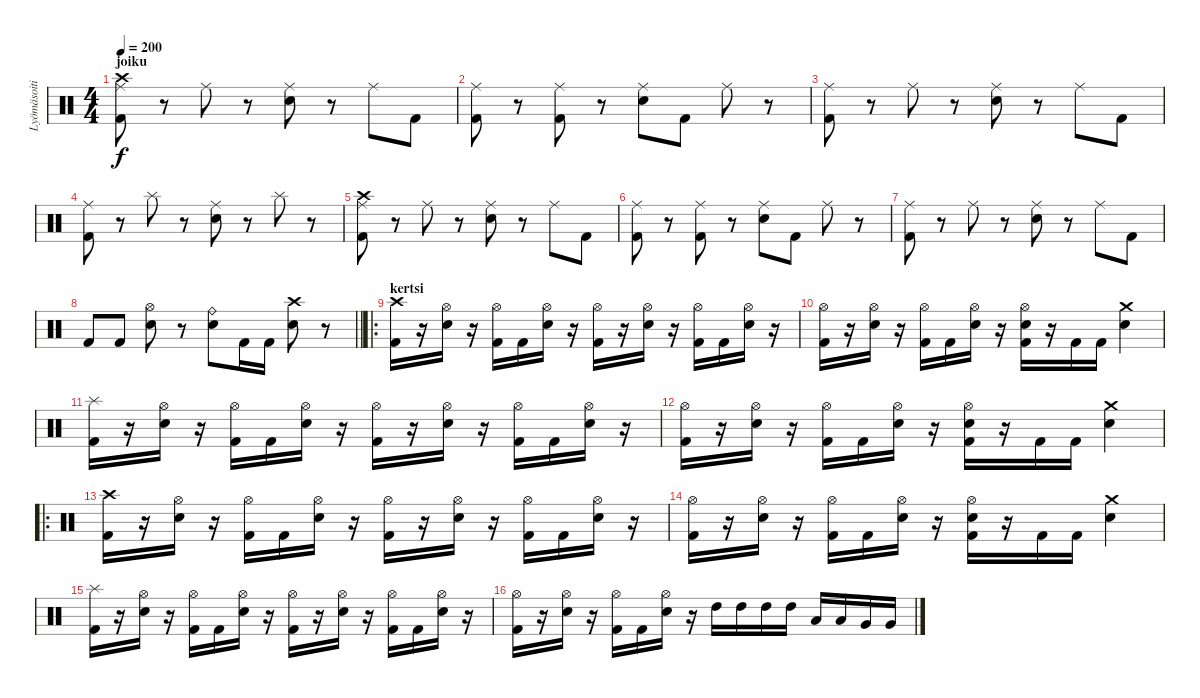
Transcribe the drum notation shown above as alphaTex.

\track ("Lyömäsoitin" "Lyömäsoiti") {instrument percussion}
\staff {score}
\articulation defaults
\ts (4 4)
\section ("" "joiku")
\tempo 200
\clef neutral
\ks c
("Crash high (hit)" "Ride (middle)" "Kick (hit) 2").8{dy f} r.8 "Ride (middle)".8 r.8 ("Electric Snare (hit)" "Ride (middle)").8 r.8 "Ride (middle)".8 "Kick (hit) 2".8 |
("Ride (middle)" "Kick (hit) 2").8 r.8 ("Ride (middle)" "Kick (hit) 2").8 r.8 ("Electric Snare (hit)" "Ride (middle)").8 "Kick (hit) 2".8 "Ride (middle)".8 r.8 |
("Ride (middle)" "Kick (hit) 2").8 r.8 "Ride (middle)".8 r.8 ("Electric Snare (hit)" "Ride (middle)").8 r.8 "Ride (middle)".8 "Kick (hit) 2".8 |
("Ride (middle)" "Kick (hit) 2").8 r.8 "Splash (hit)".8 r.8 ("Electric Snare (hit)" "Ride (middle)").8 r.8 "Splash (hit)".8 r.8 |
("Crash high (hit)" "Ride (middle)" "Kick (hit) 2").8 r.8 "Ride (middle)".8 r.8 ("Electric Snare (hit)" "Ride (middle)").8 r.8 "Ride (middle)".8 "Kick (hit) 2".8 |
("Ride (middle)" "Kick (hit) 2").8 r.8 ("Ride (middle)" "Kick (hit) 2").8 r.8 ("Electric Snare (hit)" "Ride (middle)").8 "Kick (hit) 2".8 "Ride (middle)".8 r.8 |
("Ride (middle)" "Kick (hit) 2").8 r.8 "Ride (middle)".8 r.8 ("Electric Snare (hit)" "Ride (middle)").8 r.8 "Ride (middle)".8 "Kick (hit) 2".8 |
\barLineRight lightlight "Kick (hit) 2".8 "Kick (hit) 2".8
("Hi-Hat (open)" "Electric Snare (hit)").8 r.8 ("Ride (bell)" "Electric Snare (hit)").8 "Kick (hit) 2".16 "Kick (hit) 2".16 ("Crash high (hit)" "Electric Snare (hit)").8 r.8 |
\ro
\section ("" "kertsi")
("Crash high (hit)" "Kick (hit) 2").16 r.16 ("Hi-Hat (open)" "Electric Snare (hit)").16 r.16 ("Hi-Hat (open)" "Kick (hit) 2").16 "Kick (hit) 2".16 ("Hi-Hat (open)" "Electric Snare (hit)").16 r.16 ("Hi-Hat (open)" "Kick (hit) 2").16 r.16 ("Hi-Hat (open)" "Electric Snare (hit)").16 r.16 ("Hi-Hat (open)" "Kick (hit) 2").16 "Kick (hit) 2".16 ("Hi-Hat (open)" "Electric Snare (hit)").16 r.16 |
("Hi-Hat (open)" "Kick (hit) 2").16 r.16 ("Hi-Hat (open)" "Electric Snare (hit)").16 r.16 ("Hi-Hat (open)" "Kick (hit) 2").16 "Kick (hit) 2".16 ("Hi-Hat (open)" "Electric Snare (hit)").16 r.16 ("Hi-Hat (open)" "Electric Snare (hit)" "Kick (hit) 2").16 r.16 "Kick (hit) 2".16 "Kick (hit) 2".16 ("Crash medium (hit)" "Electric Snare (hit)").4 |
("Splash (hit)" "Kick (hit) 2").16 r.16 ("Hi-Hat (open)" "Electric Snare (hit)").16 r.16 ("Hi-Hat (open)" "Kick (hit) 2").16 "Kick (hit) 2".16 ("Hi-Hat (open)" "Electric Snare (hit)").16 r.16 ("Hi-Hat (open)" "Kick (hit) 2").16 r.16 ("Hi-Hat (open)" "Electric Snare (hit)").16 r.16 ("Hi-Hat (open)" "Kick (hit) 2").16 "Kick (hit) 2".16 ("Hi-Hat (open)" "Electric Snare (hit)").16 r.16 |
("Hi-Hat (open)" "Kick (hit) 2").16 r.16 ("Hi-Hat (open)" "Electric Snare (hit)").16 r.16 ("Hi-Hat (open)" "Kick (hit) 2").16 "Kick (hit) 2".16 ("Hi-Hat (open)" "Electric Snare (hit)").16 r.16 ("Hi-Hat (open)" "Electric Snare (hit)" "Kick (hit) 2").16 r.16 "Kick (hit) 2".16 "Kick (hit) 2".16 ("Crash medium (hit)" "Electric Snare (hit)").4 |
\ro
("Crash high (hit)" "Kick (hit) 2").16 r.16 ("Hi-Hat (open)" "Electric Snare (hit)").16 r.16 ("Hi-Hat (open)" "Kick (hit) 2").16 "Kick (hit) 2".16 ("Hi-Hat (open)" "Electric Snare (hit)").16 r.16 ("Hi-Hat (open)" "Kick (hit) 2").16 r.16 ("Hi-Hat (open)" "Electric Snare (hit)").16 r.16 ("Hi-Hat (open)" "Kick (hit) 2").16 "Kick (hit) 2".16 ("Hi-Hat (open)" "Electric Snare (hit)").16 r.16 |
("Hi-Hat (open)" "Kick (hit) 2").16 r.16 ("Hi-Hat (open)" "Electric Snare (hit)").16 r.16 ("Hi-Hat (open)" "Kick (hit) 2").16 "Kick (hit) 2".16 ("Hi-Hat (open)" "Electric Snare (hit)").16 r.16 ("Hi-Hat (open)" "Electric Snare (hit)" "Kick (hit) 2").16 r.16 "Kick (hit) 2".16 "Kick (hit) 2".16 ("Crash medium (hit)" "Electric Snare (hit)").4 |
("Splash (hit)" "Kick (hit) 2").16 r.16 ("Hi-Hat (open)" "Electric Snare (hit)").16 r.16 ("Hi-Hat (open)" "Kick (hit) 2").16 "Kick (hit) 2".16 ("Hi-Hat (open)" "Electric Snare (hit)").16 r.16 ("Hi-Hat (open)" "Kick (hit) 2").16 r.16 ("Hi-Hat (open)" "Electric Snare (hit)").16 r.16 ("Hi-Hat (open)" "Kick (hit) 2").16 "Kick (hit) 2".16 ("Hi-Hat (open)" "Electric Snare (hit)").16 r.16 |
("Hi-Hat (open)" "Kick (hit) 2").16 r.16 ("Hi-Hat (open)" "Electric Snare (hit)").16 r.16 ("Hi-Hat (open)" "Kick (hit) 2").16 "Kick (hit) 2".16 ("Hi-Hat (open)" "Electric Snare (hit)").16 r.16 "High Tom (hit)".16 "High Tom (hit)".16 "High Tom (hit)".16 "High Tom (hit)".16 "Low Tom (hit)".16 "Low Tom (hit)".16 "Very Low Tom (hit)".16 "Very Low Tom (hit)".16
